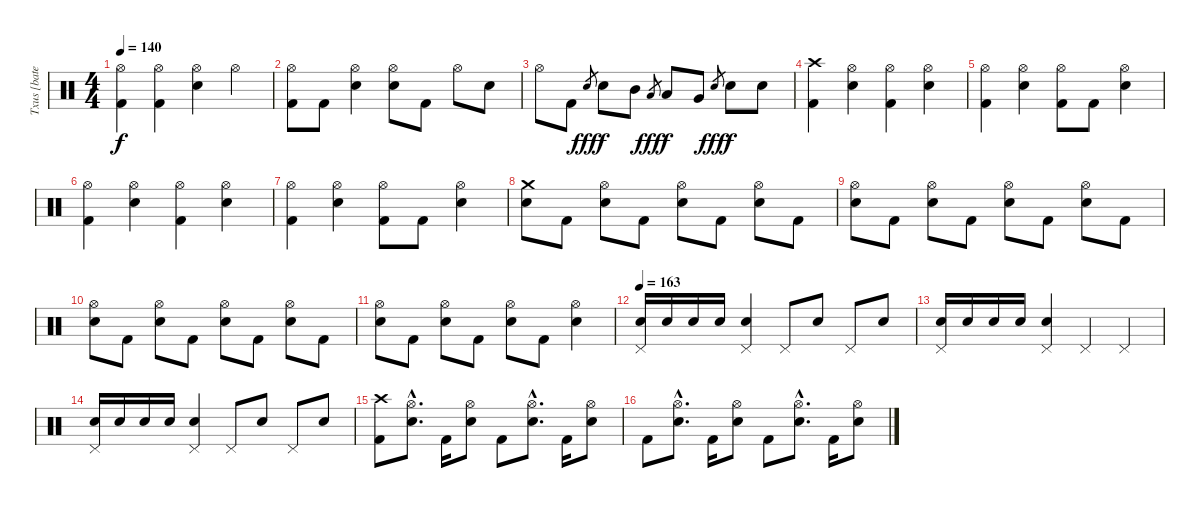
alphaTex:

\track ("Txus [bateria]" "Txus [bate") {instrument percussion}
\staff {score}
\articulation defaults
\ts (4 4)
\tempo 140
\clef neutral
\ks c
("Hi-Hat (open)" "Kick (hit) 2").4{dy f} ("Hi-Hat (open)" "Kick (hit) 2").4 ("Hi-Hat (open)" "Snare (hit) 2").4 "Hi-Hat (open)".4 |
("Hi-Hat (open)" "Kick (hit) 2").8 "Kick (hit) 2".8 ("Hi-Hat (open)" "Snare (hit) 2").4 ("Hi-Hat (open)" "Snare (hit) 2").8 "Kick (hit) 2".8 "Hi-Hat (open)".8 "Snare (hit) 2".8 |
"Hi-Hat (open)".8 "Kick (hit) 2".8 "Snare (hit) 2".8{gr dy fff} "Snare (hit) 2".8{dy f} "Mid Tom (hit)".8 "Low Tom (hit)".8{gr dy fff} "Low Tom (hit)".8{dy f} "Very Low Tom (hit)".8 "Snare (hit) 2".8{gr dy fff} "Snare (hit) 2".8{dy f} "Snare (hit) 2".8 |
("Crash high (hit)" "Kick (hit) 2").4 ("Hi-Hat (open)" "Snare (hit) 2").4 ("Hi-Hat (open)" "Kick (hit) 2").4 ("Hi-Hat (open)" "Snare (hit) 2").4 |
("Hi-Hat (open)" "Kick (hit) 2").4 ("Hi-Hat (open)" "Snare (hit) 2").4 ("Hi-Hat (open)" "Kick (hit) 2").8 "Kick (hit) 2".8 ("Hi-Hat (open)" "Snare (hit) 2").4 |
("Hi-Hat (open)" "Kick (hit) 2").4 ("Hi-Hat (open)" "Snare (hit) 2").4 ("Hi-Hat (open)" "Kick (hit) 2").4 ("Hi-Hat (open)" "Snare (hit) 2").4 |
("Hi-Hat (open)" "Kick (hit) 2").4 ("Hi-Hat (open)" "Snare (hit) 2").4 ("Hi-Hat (open)" "Kick (hit) 2").8 "Kick (hit) 2".8 ("Hi-Hat (open)" "Snare (hit) 2").4 |
("Crash medium (hit)" "Snare (hit) 2").8 "Kick (hit) 2".8 ("Hi-Hat (open)" "Snare (hit) 2").8 "Kick (hit) 2".8 ("Hi-Hat (open)" "Snare (hit) 2").8 "Kick (hit) 2".8 ("Hi-Hat (open)" "Snare (hit) 2").8 "Kick (hit) 2".8 |
("Hi-Hat (open)" "Snare (hit) 2").8 "Kick (hit) 2".8 ("Hi-Hat (open)" "Snare (hit) 2").8 "Kick (hit) 2".8 ("Hi-Hat (open)" "Snare (hit) 2").8 "Kick (hit) 2".8 ("Hi-Hat (open)" "Snare (hit) 2").8 "Kick (hit) 2".8 |
("Hi-Hat (open)" "Snare (hit) 2").8 "Kick (hit) 2".8 ("Hi-Hat (open)" "Snare (hit) 2").8 "Kick (hit) 2".8 ("Hi-Hat (open)" "Snare (hit) 2").8 "Kick (hit) 2".8 ("Hi-Hat (open)" "Snare (hit) 2").8 "Kick (hit) 2".8 |
("Hi-Hat (open)" "Snare (hit) 2").8 "Kick (hit) 2".8 ("Hi-Hat (open)" "Snare (hit) 2").8 "Kick (hit) 2".8 ("Hi-Hat (open)" "Snare (hit) 2").8 "Kick (hit) 2".8 ("Hi-Hat (open)" "Snare (hit) 2").4 |
\tempo 163
("Pedal Hi-Hat (hit)" "Snare (hit) 2").16 "Snare (hit) 2".16 "Snare (hit) 2".16 "Snare (hit) 2".16 ("Pedal Hi-Hat (hit)" "Snare (hit) 2").4 "Pedal Hi-Hat (hit)".8 "Snare (hit) 2".8 "Pedal Hi-Hat (hit)".8 "Snare (hit) 2".8 |
("Pedal Hi-Hat (hit)" "Snare (hit) 2").16 "Snare (hit) 2".16 "Snare (hit) 2".16 "Snare (hit) 2".16 ("Pedal Hi-Hat (hit)" "Snare (hit) 2").4 "Pedal Hi-Hat (hit)".4 "Pedal Hi-Hat (hit)".4 |
("Pedal Hi-Hat (hit)" "Snare (hit) 2").16 "Snare (hit) 2".16 "Snare (hit) 2".16 "Snare (hit) 2".16 ("Pedal Hi-Hat (hit)" "Snare (hit) 2").4 "Pedal Hi-Hat (hit)".8 "Snare (hit) 2".8 "Pedal Hi-Hat (hit)".8 "Snare (hit) 2".8 |
("Crash high (hit)" "Kick (hit) 2").8 ("Hi-Hat (open)"{hac} "Snare (hit) 2"{hac}).8{d} "Kick (hit) 2".16 ("Hi-Hat (open)" "Snare (hit) 2").8 "Kick (hit) 2".8 ("Hi-Hat (open)"{hac} "Snare (hit) 2"{hac}).8{d} "Kick (hit) 2".16 ("Hi-Hat (open)" "Snare (hit) 2").8 |
"Kick (hit) 2".8 ("Hi-Hat (open)"{hac} "Snare (hit) 2"{hac}).8{d} "Kick (hit) 2".16 ("Hi-Hat (open)" "Snare (hit) 2").8 "Kick (hit) 2".8 ("Hi-Hat (open)"{hac} "Snare (hit) 2"{hac}).8{d} "Kick (hit) 2".16 ("Hi-Hat (open)" "Snare (hit) 2").8
